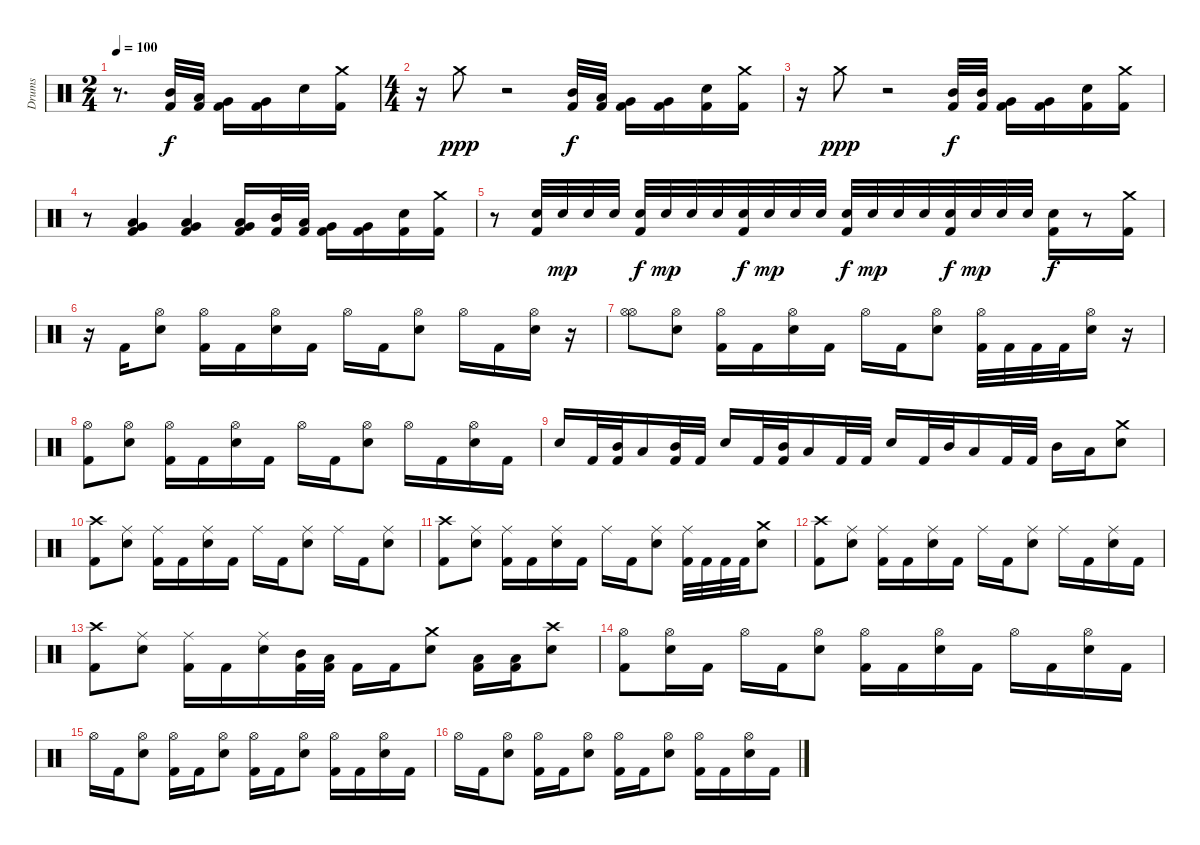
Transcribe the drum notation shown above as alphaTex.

\track ("Drums" "Drums") {instrument percussion}
\staff {score}
\articulation defaults
\ts (2 4)
\tempo 100
\clef neutral
\ks c
r.8{d dy f} ("Mid Tom (hit)" "Kick (hit) 2").32 ("Low Tom (hit)" "Kick (hit) 2").32 ("Very Low Tom (hit)" "Kick (hit) 2").16 ("Very Low Tom (hit)" "Kick (hit) 2").16 "Electric Snare (hit)".16 ("Crash medium (hit)" "Kick (hit) 2").16 |
\ts (4 4)
r.16 "Crash medium (hit)".8{dy ppp} r.2 ("Mid Tom (hit)" "Kick (hit) 2").32{dy f} ("Low Tom (hit)" "Kick (hit) 2").32 ("Very Low Tom (hit)" "Kick (hit) 2").16 ("Very Low Tom (hit)" "Kick (hit) 2").16 ("Electric Snare (hit)" "Kick (hit) 2").16 ("Crash medium (hit)" "Kick (hit) 2").16 |
r.16 "Crash medium (hit)".8{dy ppp} r.2 ("Mid Tom (hit)" "Kick (hit) 2").32{dy f} ("Mid Tom (hit)" "Kick (hit) 2").32 ("Very Low Tom (hit)" "Kick (hit) 2").16 ("Very Low Tom (hit)" "Kick (hit) 2").16 ("Electric Snare (hit)" "Kick (hit) 2").16 ("Crash medium (hit)" "Kick (hit) 2").16 |
r.8 ("Very Low Tom (hit)" "Low Floor Tom (hit)" "Kick (hit) 2").4 ("Very Low Tom (hit)" "Low Floor Tom (hit)" "Kick (hit) 2").4 ("Very Low Tom (hit)" "Low Floor Tom (hit)" "Kick (hit) 2").16 ("Mid Tom (hit)" "Kick (hit) 2").32 ("Low Tom (hit)" "Kick (hit) 2").32 ("Very Low Tom (hit)" "Kick (hit) 2").16 ("Very Low Tom (hit)" "Kick (hit) 2").16 ("Electric Snare (hit)" "Kick (hit) 2").16 ("Crash medium (hit)" "Kick (hit) 2").16 |
r.8 ("Electric Snare (hit)" "Kick (hit) 2").32 "Electric Snare (hit)".32{dy mp} "Electric Snare (hit)".32 "Electric Snare (hit)".32 ("Electric Snare (hit)" "Kick (hit) 2").32{dy f} "Electric Snare (hit)".32{dy mp} "Electric Snare (hit)".32 "Electric Snare (hit)".32 ("Electric Snare (hit)" "Kick (hit) 2").32{dy f} "Electric Snare (hit)".32{dy mp} "Electric Snare (hit)".32 "Electric Snare (hit)".32 ("Electric Snare (hit)" "Kick (hit) 2").32{dy f} "Electric Snare (hit)".32{dy mp} "Electric Snare (hit)".32 "Electric Snare (hit)".32 ("Electric Snare (hit)" "Kick (hit) 2").32{dy f} "Electric Snare (hit)".32{dy mp} "Electric Snare (hit)".32 "Electric Snare (hit)".32 ("Electric Snare (hit)" "Kick (hit) 2").16{dy f} r.8 ("Crash medium (hit)" "Kick (hit) 2").16 |
r.16 "Kick (hit) 2".16 ("Hi-Hat (open)" "Electric Snare (hit)").8 ("Hi-Hat (open)" "Kick (hit) 2").16 "Kick (hit) 2".16 ("Hi-Hat (open)" "Electric Snare (hit)").16 "Kick (hit) 2".16 "Hi-Hat (open)".16 "Kick (hit) 2".16 ("Hi-Hat (open)" "Electric Snare (hit)").8 "Hi-Hat (open)".16 "Kick (hit) 2".16 ("Hi-Hat (open)" "Electric Snare (hit)").16 r.16 |
("Hi-Hat (open)" "Hi-Hat (open)").8 ("Hi-Hat (open)" "Electric Snare (hit)").8 ("Hi-Hat (open)" "Kick (hit) 2").16 "Kick (hit) 2".16 ("Hi-Hat (open)" "Electric Snare (hit)").16 "Kick (hit) 2".16 "Hi-Hat (open)".16 "Kick (hit) 2".16 ("Hi-Hat (open)" "Electric Snare (hit)").8 ("Hi-Hat (open)" "Kick (hit) 2").32 "Kick (hit) 2".32 "Kick (hit) 2".32 "Kick (hit) 2".32 ("Hi-Hat (open)" "Electric Snare (hit)").16 r.16 |
("Hi-Hat (open)" "Kick (hit) 2").8 ("Hi-Hat (open)" "Electric Snare (hit)").8 ("Hi-Hat (open)" "Kick (hit) 2").16 "Kick (hit) 2".16 ("Hi-Hat (open)" "Electric Snare (hit)").16 "Kick (hit) 2".16 "Hi-Hat (open)".16 "Kick (hit) 2".16 ("Hi-Hat (open)" "Electric Snare (hit)").8 "Hi-Hat (open)".16 "Kick (hit) 2".16 ("Hi-Hat (open)" "Electric Snare (hit)").16 "Kick (hit) 2".16 |
"Electric Snare (hit)".16 "Kick (hit) 2".32 ("Mid Tom (hit)" "Kick (hit) 2").32 "Low Tom (hit)".16 ("Mid Tom (hit)" "Kick (hit) 2").32 "Kick (hit) 2".32 "Electric Snare (hit)".16 "Kick (hit) 2".32 ("Mid Tom (hit)" "Kick (hit) 2").32 "Low Tom (hit)".16 "Kick (hit) 2".32 "Kick (hit) 2".32 "Electric Snare (hit)".16 "Kick (hit) 2".32 "Mid Tom (hit)".32 "Low Tom (hit)".16 "Kick (hit) 2".32 "Kick (hit) 2".32 "Mid Tom (hit)".16 "Low Tom (hit)".16 ("Crash medium (hit)" "Electric Snare (hit)").8 |
("Crash high (hit)" "Kick (hit) 2").8 ("Ride (middle)" "Electric Snare (hit)").8 ("Ride (middle)" "Kick (hit) 2").16 "Kick (hit) 2".16 ("Ride (middle)" "Electric Snare (hit)").16 "Kick (hit) 2".16 "Ride (middle)".16 "Kick (hit) 2".16 ("Ride (middle)" "Electric Snare (hit)").8 "Ride (middle)".16 "Kick (hit) 2".16 ("Ride (middle)" "Electric Snare (hit)").8 |
("Crash high (hit)" "Kick (hit) 2").8 ("Ride (middle)" "Electric Snare (hit)").8 ("Ride (middle)" "Kick (hit) 2").16 "Kick (hit) 2".16 ("Ride (middle)" "Electric Snare (hit)").16 "Kick (hit) 2".16 "Ride (middle)".16 "Kick (hit) 2".16 ("Ride (middle)" "Electric Snare (hit)").8 ("Ride (middle)" "Kick (hit) 2").32 "Kick (hit) 2".32 "Kick (hit) 2".32 "Kick (hit) 2".32 ("Crash medium (hit)" "Electric Snare (hit)").8 |
("Crash high (hit)" "Kick (hit) 2").8 ("Ride (middle)" "Electric Snare (hit)").8 ("Ride (middle)" "Kick (hit) 2").16 "Kick (hit) 2".16 ("Ride (middle)" "Electric Snare (hit)").16 "Kick (hit) 2".16 "Ride (middle)".16 "Kick (hit) 2".16 ("Ride (middle)" "Electric Snare (hit)").8 "Ride (middle)".16 "Kick (hit) 2".16 ("Ride (middle)" "Electric Snare (hit)").16 "Kick (hit) 2".16 |
("Crash high (hit)" "Kick (hit) 2").8 ("Ride (middle)" "Electric Snare (hit)").8 ("Ride (middle)" "Kick (hit) 2").16 "Kick (hit) 2".16 ("Ride (middle)" "Electric Snare (hit)").16 ("Mid Tom (hit)" "Kick (hit) 2").32 ("Low Tom (hit)" "Kick (hit) 2").32 "Kick (hit) 2".16 "Kick (hit) 2".16 ("Crash medium (hit)" "Electric Snare (hit)").8 ("Low Tom (hit)" "Kick (hit) 2").16 ("Low Tom (hit)" "Kick (hit) 2").16 ("Crash high (hit)" "Electric Snare (hit)").8 |
("Hi-Hat (open)" "Kick (hit) 2").8 ("Hi-Hat (open)" "Electric Snare (hit)").16 "Kick (hit) 2".16 "Hi-Hat (open)".16 "Kick (hit) 2".16 ("Hi-Hat (open)" "Electric Snare (hit)").8 ("Hi-Hat (open)" "Kick (hit) 2").16 "Kick (hit) 2".16 ("Hi-Hat (open)" "Electric Snare (hit)").16 "Kick (hit) 2".16 "Hi-Hat (open)".16 "Kick (hit) 2".16 ("Hi-Hat (open)" "Electric Snare (hit)").16 "Kick (hit) 2".16 |
"Hi-Hat (open)".16 "Kick (hit) 2".16 ("Hi-Hat (open)" "Electric Snare (hit)").8 ("Hi-Hat (open)" "Kick (hit) 2").16 "Kick (hit) 2".16 ("Hi-Hat (open)" "Electric Snare (hit)").8 ("Hi-Hat (open)" "Kick (hit) 2").16 "Kick (hit) 2".16 ("Hi-Hat (open)" "Electric Snare (hit)").8 ("Hi-Hat (open)" "Kick (hit) 2").16 "Kick (hit) 2".16 ("Hi-Hat (open)" "Electric Snare (hit)").16 "Kick (hit) 2".16 |
"Hi-Hat (open)".16 "Kick (hit) 2".16 ("Hi-Hat (open)" "Electric Snare (hit)").8 ("Hi-Hat (open)" "Kick (hit) 2").16 "Kick (hit) 2".16 ("Hi-Hat (open)" "Electric Snare (hit)").8 ("Hi-Hat (open)" "Kick (hit) 2").16 "Kick (hit) 2".16 ("Hi-Hat (open)" "Electric Snare (hit)").8 ("Hi-Hat (open)" "Kick (hit) 2").16 "Kick (hit) 2".16 ("Hi-Hat (open)" "Electric Snare (hit)").16 "Kick (hit) 2".16
